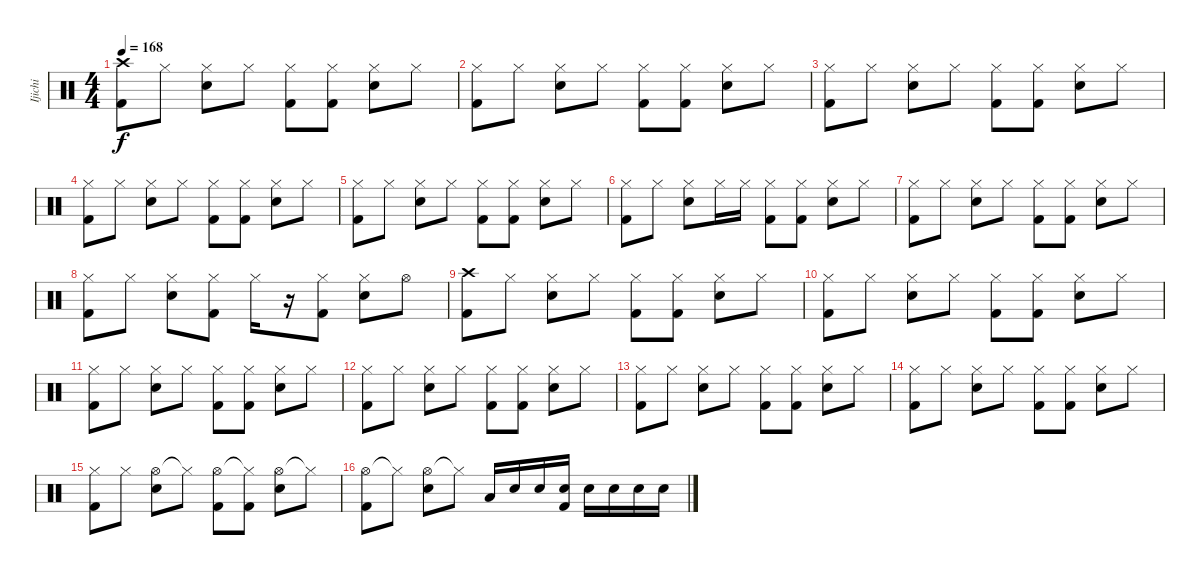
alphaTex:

\track ("Ijichi" "Ijichi") {instrument percussion}
\staff {score}
\articulation defaults
\ts (4 4)
\tempo 168
\clef neutral
\ks c
("Crash high (hit)" "Kick (hit) 2").8{dy f} "Hi-Hat (closed)".8 ("Hi-Hat (closed)" "Electric Snare (hit)").8 "Hi-Hat (closed)".8 ("Hi-Hat (closed)" "Kick (hit) 2").8 ("Hi-Hat (closed)" "Kick (hit) 2").8 ("Hi-Hat (closed)" "Electric Snare (hit)").8 "Hi-Hat (closed)".8 |
("Hi-Hat (closed)" "Kick (hit) 2").8 "Hi-Hat (closed)".8 ("Hi-Hat (closed)" "Electric Snare (hit)").8 "Hi-Hat (closed)".8 ("Hi-Hat (closed)" "Kick (hit) 2").8 ("Hi-Hat (closed)" "Kick (hit) 2").8 ("Hi-Hat (closed)" "Electric Snare (hit)").8 "Hi-Hat (closed)".8 |
("Hi-Hat (closed)" "Kick (hit) 2").8 "Hi-Hat (closed)".8 ("Hi-Hat (closed)" "Electric Snare (hit)").8 "Hi-Hat (closed)".8 ("Hi-Hat (closed)" "Kick (hit) 2").8 ("Hi-Hat (closed)" "Kick (hit) 2").8 ("Hi-Hat (closed)" "Electric Snare (hit)").8 "Hi-Hat (closed)".8 |
("Hi-Hat (closed)" "Kick (hit) 2").8 "Hi-Hat (closed)".8 ("Hi-Hat (closed)" "Electric Snare (hit)").8 "Hi-Hat (closed)".8 ("Hi-Hat (closed)" "Kick (hit) 2").8 ("Hi-Hat (closed)" "Kick (hit) 2").8 ("Hi-Hat (closed)" "Electric Snare (hit)").8 "Hi-Hat (closed)".8 |
("Hi-Hat (closed)" "Kick (hit) 2").8 "Hi-Hat (closed)".8 ("Hi-Hat (closed)" "Electric Snare (hit)").8 "Hi-Hat (closed)".8 ("Hi-Hat (closed)" "Kick (hit) 2").8 ("Hi-Hat (closed)" "Kick (hit) 2").8 ("Hi-Hat (closed)" "Electric Snare (hit)").8 "Hi-Hat (closed)".8 |
("Hi-Hat (closed)" "Kick (hit) 2").8 "Hi-Hat (closed)".8 ("Hi-Hat (closed)" "Electric Snare (hit)").8 "Hi-Hat (closed)".16 "Hi-Hat (closed)".16 ("Hi-Hat (closed)" "Kick (hit) 2").8 ("Hi-Hat (closed)" "Kick (hit) 2").8 ("Hi-Hat (closed)" "Electric Snare (hit)").8 "Hi-Hat (closed)".8 |
("Hi-Hat (closed)" "Kick (hit) 2").8 "Hi-Hat (closed)".8 ("Hi-Hat (closed)" "Electric Snare (hit)").8 "Hi-Hat (closed)".8 ("Hi-Hat (closed)" "Kick (hit) 2").8 ("Hi-Hat (closed)" "Kick (hit) 2").8 ("Hi-Hat (closed)" "Electric Snare (hit)").8 "Hi-Hat (closed)".8 |
("Hi-Hat (closed)" "Kick (hit) 2").8 "Hi-Hat (closed)".8 ("Hi-Hat (closed)" "Electric Snare (hit)").8 ("Hi-Hat (closed)" "Kick (hit) 2").8 "Hi-Hat (closed)".16 r.16 ("Hi-Hat (closed)" "Kick (hit) 2").8 ("Hi-Hat (closed)" "Electric Snare (hit)").8 "Hi-Hat (open)".8 |
("Crash high (hit)" "Kick (hit) 2").8 "Hi-Hat (closed)".8 ("Hi-Hat (closed)" "Electric Snare (hit)").8 "Hi-Hat (closed)".8 ("Hi-Hat (closed)" "Kick (hit) 2").8 ("Hi-Hat (closed)" "Kick (hit) 2").8 ("Hi-Hat (closed)" "Electric Snare (hit)").8 "Hi-Hat (closed)".8 |
("Hi-Hat (closed)" "Kick (hit) 2").8 "Hi-Hat (closed)".8 ("Hi-Hat (closed)" "Electric Snare (hit)").8 "Hi-Hat (closed)".8 ("Hi-Hat (closed)" "Kick (hit) 2").8 ("Hi-Hat (closed)" "Kick (hit) 2").8 ("Hi-Hat (closed)" "Electric Snare (hit)").8 "Hi-Hat (closed)".8 |
("Hi-Hat (closed)" "Kick (hit) 2").8 "Hi-Hat (closed)".8 ("Hi-Hat (closed)" "Electric Snare (hit)").8 "Hi-Hat (closed)".8 ("Hi-Hat (closed)" "Kick (hit) 2").8 ("Hi-Hat (closed)" "Kick (hit) 2").8 ("Hi-Hat (closed)" "Electric Snare (hit)").8 "Hi-Hat (closed)".8 |
("Hi-Hat (closed)" "Kick (hit) 2").8 "Hi-Hat (closed)".8 ("Hi-Hat (closed)" "Electric Snare (hit)").8 "Hi-Hat (closed)".8 ("Hi-Hat (closed)" "Kick (hit) 2").8 ("Hi-Hat (closed)" "Kick (hit) 2").8 ("Hi-Hat (closed)" "Electric Snare (hit)").8 "Hi-Hat (closed)".8 |
("Hi-Hat (closed)" "Kick (hit) 2").8 "Hi-Hat (closed)".8 ("Hi-Hat (closed)" "Electric Snare (hit)").8 "Hi-Hat (closed)".8 ("Hi-Hat (closed)" "Kick (hit) 2").8 ("Hi-Hat (closed)" "Kick (hit) 2").8 ("Hi-Hat (closed)" "Electric Snare (hit)").8 "Hi-Hat (closed)".8 |
("Hi-Hat (closed)" "Kick (hit) 2").8 "Hi-Hat (closed)".8 ("Hi-Hat (closed)" "Electric Snare (hit)").8 "Hi-Hat (closed)".8 ("Hi-Hat (closed)" "Kick (hit) 2").8 ("Hi-Hat (closed)" "Kick (hit) 2").8 ("Hi-Hat (closed)" "Electric Snare (hit)").8 "Hi-Hat (closed)".8 |
("Hi-Hat (closed)" "Kick (hit) 2").8 "Hi-Hat (closed)".8 ("Hi-Hat (open)" "Electric Snare (hit)").8 "Hi-Hat (closed)"{t}.8 ("Hi-Hat (open)" "Kick (hit) 2").8 ("Hi-Hat (closed)"{t} "Kick (hit) 2").8 ("Hi-Hat (open)" "Electric Snare (hit)").8 "Hi-Hat (closed)"{t}.8 |
("Hi-Hat (open)" "Kick (hit) 2").8 "Hi-Hat (closed)"{t}.8 ("Hi-Hat (open)" "Electric Snare (hit)").8 "Hi-Hat (closed)"{t}.8 "Low Floor Tom (hit)".16 "Electric Snare (hit)".16 "Electric Snare (hit)".16 ("Electric Snare (hit)" "Kick (hit) 2").16 "Electric Snare (hit)".16 "Electric Snare (hit)".16 "Electric Snare (hit)".16 "Electric Snare (hit)".16
